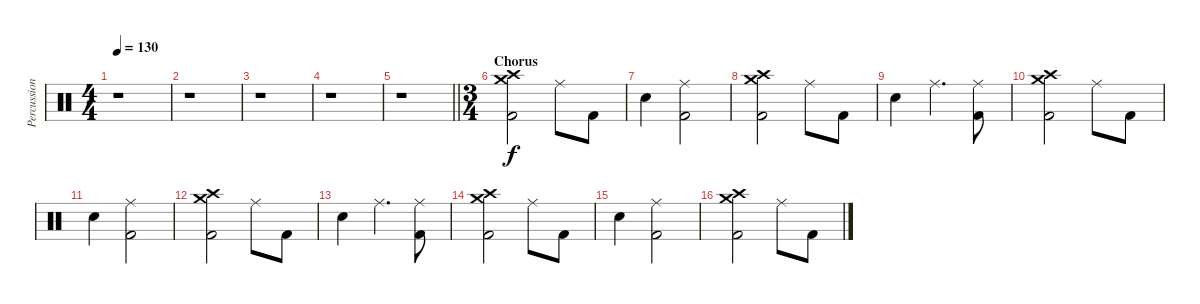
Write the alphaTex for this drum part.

\track ("Percussion" "Percussion") {instrument percussion}
\staff {score}
\articulation defaults
\ts (4 4)
\tempo 130
\clef neutral
\ks c
r.1{dy f} |
r.1 |
r.1 |
r.1 |
\barLineRight lightlight
r.1 |
\ts (3 4)
\section ("" "Chorus")
("Crash high (hit)" "Crash medium (hit)" "Kick (hit) 2").2 "Ride (middle)".8 "Kick (hit) 2".8 |
"Snare (hit) 2".4 ("Kick (hit) 2" "Ride (middle)").2 |
("Crash high (hit)" "Crash medium (hit)" "Kick (hit) 2").2 "Ride (middle)".8 "Kick (hit) 2".8 |
"Snare (hit) 2".4 "Ride (middle)".4{d} ("Kick (hit) 2" "Ride (middle)").8 |
("Crash high (hit)" "Crash medium (hit)" "Kick (hit) 2").2 "Ride (middle)".8 "Kick (hit) 2".8 |
"Snare (hit) 2".4 ("Kick (hit) 2" "Ride (middle)").2 |
("Crash high (hit)" "Crash medium (hit)" "Kick (hit) 2").2 "Ride (middle)".8 "Kick (hit) 2".8 |
"Snare (hit) 2".4 "Ride (middle)".4{d} ("Kick (hit) 2" "Ride (middle)").8 |
("Crash high (hit)" "Crash medium (hit)" "Kick (hit) 2").2 "Ride (middle)".8 "Kick (hit) 2".8 |
"Snare (hit) 2".4 ("Kick (hit) 2" "Ride (middle)").2 |
("Crash high (hit)" "Crash medium (hit)" "Kick (hit) 2").2 "Ride (middle)".8 "Kick (hit) 2".8
